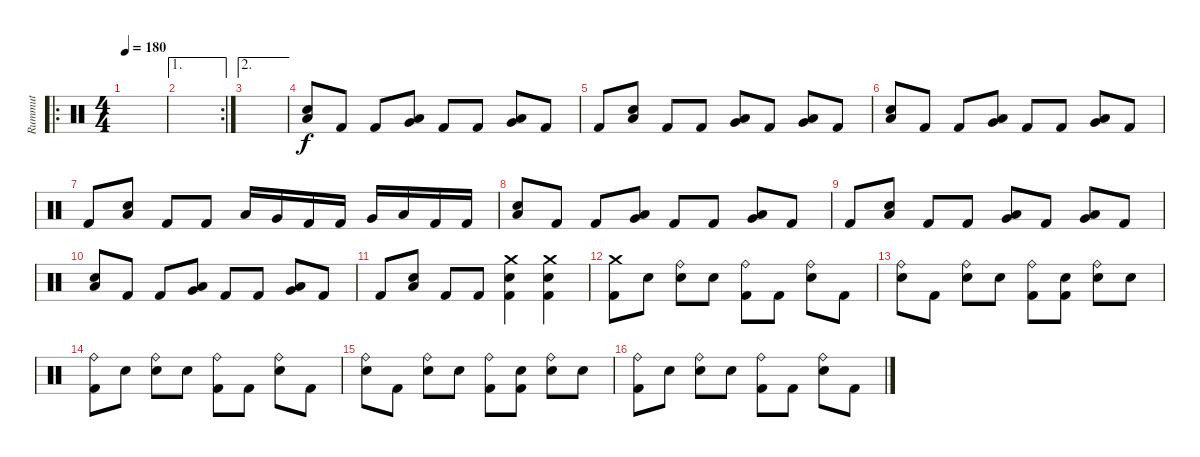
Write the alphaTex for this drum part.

\track ("Rummut" "Rummut") {instrument percussion}
\staff {score}
\articulation defaults
\ro
\ts (4 4)
\tempo 180
\clef neutral
\ks c
|
\ae 1
\rc 2
|
\ae 2
|
("Snare (hit) 2" "Low Tom (hit)").8 "Kick (hit) 2".8 "Kick (hit) 2".8 ("Very Low Tom (hit)" "Low Tom (hit)").8 "Kick (hit) 2".8 "Kick (hit) 2".8 ("Low Floor Tom (hit)" "Very Low Tom (hit)").8 "Kick (hit) 2".8 |
"Kick (hit) 2".8 ("Low Tom (hit)" "Snare (hit) 2").8 "Kick (hit) 2".8 "Kick (hit) 2".8 ("Very Low Tom (hit)" "Low Tom (hit)").8 "Kick (hit) 2".8 ("Low Floor Tom (hit)" "Very Low Tom (hit)").8 "Kick (hit) 2".8 |
("Snare (hit) 2" "Low Tom (hit)").8 "Kick (hit) 2".8 "Kick (hit) 2".8 ("Very Low Tom (hit)" "Low Tom (hit)").8 "Kick (hit) 2".8 "Kick (hit) 2".8 ("Low Floor Tom (hit)" "Very Low Tom (hit)").8 "Kick (hit) 2".8 |
"Kick (hit) 2".8 ("Low Tom (hit)" "Snare (hit) 2").8 "Kick (hit) 2".8 "Kick (hit) 2".8 "Low Tom (hit)".16 "Very Low Tom (hit)".16 "Kick (hit) 2".16 "Kick (hit) 2".16 "Very Low Tom (hit)".16 "Low Floor Tom (hit)".16 "Kick (hit) 2".16 "Kick (hit) 2".16 |
("Snare (hit) 2" "Low Tom (hit)").8 "Kick (hit) 2".8 "Kick (hit) 2".8 ("Very Low Tom (hit)" "Low Tom (hit)").8 "Kick (hit) 2".8 "Kick (hit) 2".8 ("Low Floor Tom (hit)" "Very Low Tom (hit)").8 "Kick (hit) 2".8 |
"Kick (hit) 2".8 ("Low Tom (hit)" "Snare (hit) 2").8 "Kick (hit) 2".8 "Kick (hit) 2".8 ("Very Low Tom (hit)" "Low Tom (hit)").8 "Kick (hit) 2".8 ("Low Floor Tom (hit)" "Very Low Tom (hit)").8 "Kick (hit) 2".8 |
("Snare (hit) 2" "Low Tom (hit)").8 "Kick (hit) 2".8 "Kick (hit) 2".8 ("Very Low Tom (hit)" "Low Tom (hit)").8 "Kick (hit) 2".8 "Kick (hit) 2".8 ("Low Floor Tom (hit)" "Very Low Tom (hit)").8 "Kick (hit) 2".8 |
"Kick (hit) 2".8 ("Low Tom (hit)" "Snare (hit) 2").8 "Kick (hit) 2".8 "Kick (hit) 2".8 ("Crash medium (hit)" "Snare (hit) 2" "Kick (hit) 2").4 ("Crash medium (hit)" "Snare (hit) 2" "Kick (hit) 2").4 |
("Crash medium (hit)" "Kick (hit) 2").8 "Snare (hit) 2"{x}.8 ("Ride (bell)" "Snare (hit) 2").8 "Snare (hit)"{x}.8 ("Ride (bell)" "Kick (hit) 2").8 "Kick (hit) 2".8 ("Ride (bell)" "Snare (hit) 2").8 "Kick (hit) 2".8 |
("Ride (bell)" "Snare (hit)"{x}).8 "Kick (hit) 2".8 ("Ride (bell)" "Snare (hit) 2").8 "Snare (hit)"{x}.8 ("Ride (bell)" "Kick (hit) 2").8 ("Snare (hit)"{x} "Kick (hit) 2").8 ("Ride (bell)" "Snare (hit) 2").8 "Snare (hit)"{x}.8 |
("Ride (bell)" "Kick (hit) 2").8 "Snare (hit) 2"{x}.8 ("Ride (bell)" "Snare (hit) 2").8 "Snare (hit)"{x}.8 ("Ride (bell)" "Kick (hit) 2").8 "Kick (hit) 2".8 ("Ride (bell)" "Snare (hit) 2").8 "Kick (hit) 2".8 |
("Ride (bell)" "Snare (hit)"{x}).8 "Kick (hit) 2".8 ("Ride (bell)" "Snare (hit) 2").8 "Snare (hit)"{x}.8 ("Ride (bell)" "Kick (hit) 2").8 ("Snare (hit)"{x} "Kick (hit) 2").8 ("Ride (bell)" "Snare (hit) 2").8 "Snare (hit)"{x}.8 |
("Ride (bell)" "Kick (hit) 2").8 "Snare (hit) 2"{x}.8 ("Ride (bell)" "Snare (hit) 2").8 "Snare (hit)"{x}.8 ("Ride (bell)" "Kick (hit) 2").8 "Kick (hit) 2".8 ("Ride (bell)" "Snare (hit) 2").8 "Kick (hit) 2".8
